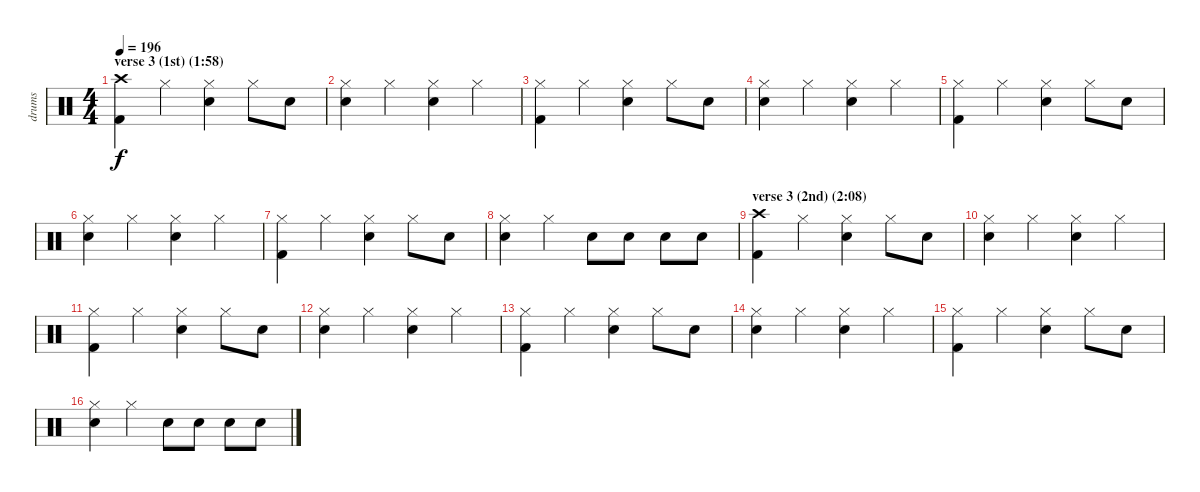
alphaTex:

\track ("drums" "drums") {instrument percussion}
\staff {score}
\articulation defaults
\ts (4 4)
\section ("" "verse 3 (1st) (1:58)")
\tempo 196
\clef neutral
\ks c
("Crash high (hit)" "Kick (hit) 2").4{dy f} "Hi-Hat (closed)".4 ("Hi-Hat (closed)" "Snare (hit) 2").4 "Hi-Hat (closed)".8 "Snare (hit) 2".8 |
("Hi-Hat (closed)" "Snare (hit) 2").4 "Hi-Hat (closed)".4 ("Hi-Hat (closed)" "Snare (hit) 2").4 "Hi-Hat (closed)".4 |
("Hi-Hat (closed)" "Kick (hit) 2").4 "Hi-Hat (closed)".4 ("Hi-Hat (closed)" "Snare (hit) 2").4 "Hi-Hat (closed)".8 "Snare (hit) 2".8 |
("Hi-Hat (closed)" "Snare (hit) 2").4 "Hi-Hat (closed)".4 ("Hi-Hat (closed)" "Snare (hit) 2").4 "Hi-Hat (closed)".4 |
("Hi-Hat (closed)" "Kick (hit) 2").4 "Hi-Hat (closed)".4 ("Hi-Hat (closed)" "Snare (hit) 2").4 "Hi-Hat (closed)".8 "Snare (hit) 2".8 |
("Hi-Hat (closed)" "Snare (hit) 2").4 "Hi-Hat (closed)".4 ("Hi-Hat (closed)" "Snare (hit) 2").4 "Hi-Hat (closed)".4 |
("Hi-Hat (closed)" "Kick (hit) 2").4 "Hi-Hat (closed)".4 ("Hi-Hat (closed)" "Snare (hit) 2").4 "Hi-Hat (closed)".8 "Snare (hit) 2".8 |
("Hi-Hat (closed)" "Snare (hit) 2").4 "Hi-Hat (closed)".4 "Snare (hit) 2".8 "Snare (hit) 2".8 "Snare (hit) 2".8 "Snare (hit) 2".8 |
\section ("" "verse 3 (2nd) (2:08)")
("Crash high (hit)" "Kick (hit) 2").4 "Hi-Hat (closed)".4 ("Hi-Hat (closed)" "Snare (hit) 2").4 "Hi-Hat (closed)".8 "Snare (hit) 2".8 |
("Hi-Hat (closed)" "Snare (hit) 2").4 "Hi-Hat (closed)".4 ("Hi-Hat (closed)" "Snare (hit) 2").4 "Hi-Hat (closed)".4 |
("Hi-Hat (closed)" "Kick (hit) 2").4 "Hi-Hat (closed)".4 ("Hi-Hat (closed)" "Snare (hit) 2").4 "Hi-Hat (closed)".8 "Snare (hit) 2".8 |
("Hi-Hat (closed)" "Snare (hit) 2").4 "Hi-Hat (closed)".4 ("Hi-Hat (closed)" "Snare (hit) 2").4 "Hi-Hat (closed)".4 |
("Hi-Hat (closed)" "Kick (hit) 2").4 "Hi-Hat (closed)".4 ("Hi-Hat (closed)" "Snare (hit) 2").4 "Hi-Hat (closed)".8 "Snare (hit) 2".8 |
("Hi-Hat (closed)" "Snare (hit) 2").4 "Hi-Hat (closed)".4 ("Hi-Hat (closed)" "Snare (hit) 2").4 "Hi-Hat (closed)".4 |
("Hi-Hat (closed)" "Kick (hit) 2").4 "Hi-Hat (closed)".4 ("Hi-Hat (closed)" "Snare (hit) 2").4 "Hi-Hat (closed)".8 "Snare (hit) 2".8 |
("Hi-Hat (closed)" "Snare (hit) 2").4 "Hi-Hat (closed)".4 "Snare (hit) 2".8 "Snare (hit) 2".8 "Snare (hit) 2".8 "Snare (hit) 2".8
